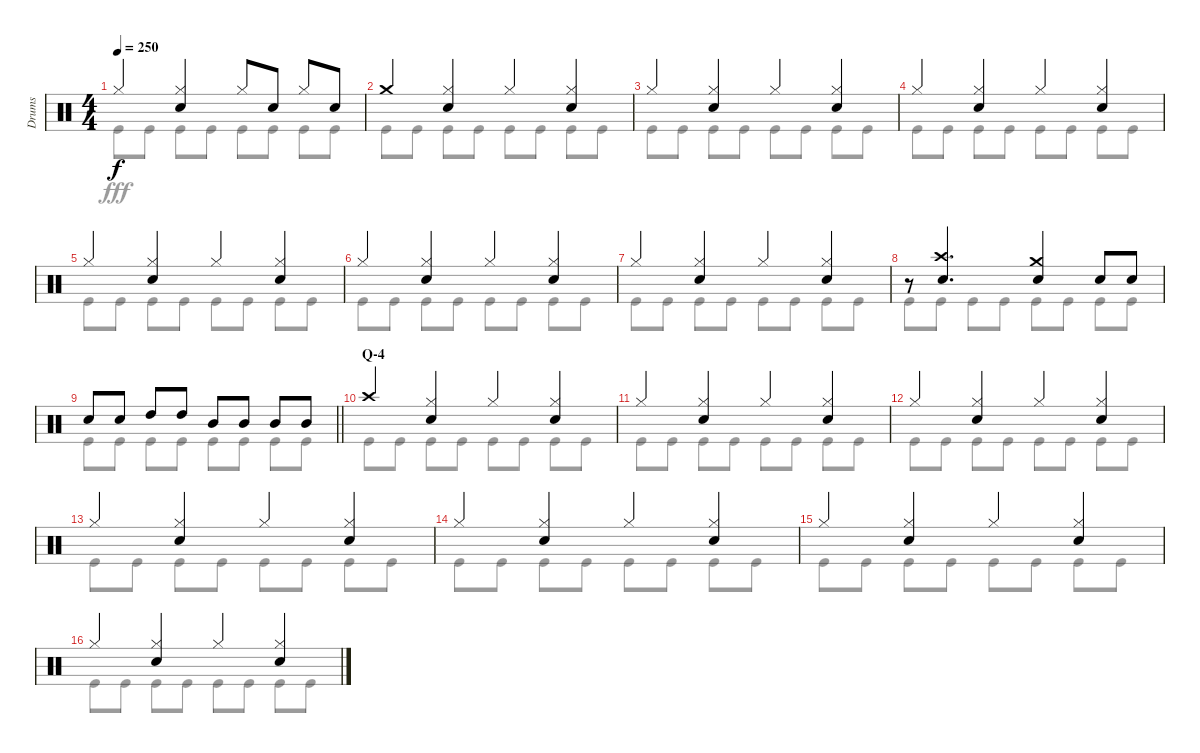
\track ("Drums" "Drums") {instrument percussion}
\staff {score}
\articulation defaults
\voice
\ts (4 4)
\tempo 250
\clef neutral
\ks c "Hi-Hat (closed)".4{dy f}
("Hi-Hat (closed)" "Snare (hit) 2").4 "Hi-Hat (closed)".8 "Snare (hit) 2".8 "Hi-Hat (closed)".8 "Snare (hit) 2".8 |
"Crash medium (hit)".4 ("Hi-Hat (closed)" "Snare (hit) 2").4 "Hi-Hat (closed)".4 ("Hi-Hat (closed)" "Snare (hit) 2").4 |
"Hi-Hat (closed)".4 ("Hi-Hat (closed)" "Snare (hit) 2").4 "Hi-Hat (closed)".4 ("Hi-Hat (closed)" "Snare (hit) 2").4 |
"Hi-Hat (closed)".4 ("Hi-Hat (closed)" "Snare (hit) 2").4 "Hi-Hat (closed)".4 ("Hi-Hat (closed)" "Snare (hit) 2").4 |
"Hi-Hat (closed)".4 ("Hi-Hat (closed)" "Snare (hit) 2").4 "Hi-Hat (closed)".4 ("Hi-Hat (closed)" "Snare (hit) 2").4 |
"Hi-Hat (closed)".4 ("Hi-Hat (closed)" "Snare (hit) 2").4 "Hi-Hat (closed)".4 ("Hi-Hat (closed)" "Snare (hit) 2").4 |
"Hi-Hat (closed)".4 ("Hi-Hat (closed)" "Snare (hit) 2").4 "Hi-Hat (closed)".4 ("Hi-Hat (closed)" "Snare (hit) 2").4 |
r.8 ("Crash high (hit)" "Snare (hit) 2").4{d} ("Crash medium (hit)" "Snare (hit) 2").4 "Snare (hit) 2".8 "Snare (hit) 2".8 |
\barLineRight lightlight "Snare (hit) 2".8 "Snare (hit) 2".8 "High Tom (hit)".8 "High Tom (hit)".8 "Mid Tom (hit)".8 "Mid Tom (hit)".8 "Mid Tom (hit)".8 "Mid Tom (hit)".8
|
\section ("" "Q-4")
"Crash high (hit)".4 ("Hi-Hat (closed)" "Snare (hit) 2").4 "Hi-Hat (closed)".4 ("Hi-Hat (closed)" "Snare (hit) 2").4 |
"Hi-Hat (closed)".4 ("Hi-Hat (closed)" "Snare (hit) 2").4 "Hi-Hat (closed)".4 ("Hi-Hat (closed)" "Snare (hit) 2").4 |
"Hi-Hat (closed)".4 ("Hi-Hat (closed)" "Snare (hit) 2").4 "Hi-Hat (closed)".4 ("Hi-Hat (closed)" "Snare (hit) 2").4 |
"Hi-Hat (closed)".4 ("Hi-Hat (closed)" "Snare (hit) 2").4 "Hi-Hat (closed)".4 ("Hi-Hat (closed)" "Snare (hit) 2").4 |
"Hi-Hat (closed)".4 ("Hi-Hat (closed)" "Snare (hit) 2").4 "Hi-Hat (closed)".4 ("Hi-Hat (closed)" "Snare (hit) 2").4 |
"Hi-Hat (closed)".4 ("Hi-Hat (closed)" "Snare (hit) 2").4 "Hi-Hat (closed)".4 ("Hi-Hat (closed)" "Snare (hit) 2").4 |
"Hi-Hat (closed)".4 ("Hi-Hat (closed)" "Snare (hit) 2").4 "Hi-Hat (closed)".4 ("Hi-Hat (closed)" "Snare (hit) 2").4
\voice
\clef neutral
\ottava regular
\simile none
\ks c "Kick (hit)".8{dy fff} "Kick (hit)".8 "Kick (hit)".8 "Kick (hit)".8 "Kick (hit)".8 "Kick (hit)".8 "Kick (hit)".8 "Kick (hit)".8
|
"Kick (hit)".8 "Kick (hit)".8 "Kick (hit)".8 "Kick (hit)".8 "Kick (hit)".8 "Kick (hit)".8 "Kick (hit)".8 "Kick (hit)".8 |
"Kick (hit)".8 "Kick (hit)".8 "Kick (hit)".8 "Kick (hit)".8 "Kick (hit)".8 "Kick (hit)".8 "Kick (hit)".8 "Kick (hit)".8 |
"Kick (hit)".8 "Kick (hit)".8 "Kick (hit)".8 "Kick (hit)".8 "Kick (hit)".8 "Kick (hit)".8 "Kick (hit)".8 "Kick (hit)".8 |
"Kick (hit)".8 "Kick (hit)".8 "Kick (hit)".8 "Kick (hit)".8 "Kick (hit)".8 "Kick (hit)".8 "Kick (hit)".8 "Kick (hit)".8 |
"Kick (hit)".8 "Kick (hit)".8 "Kick (hit)".8 "Kick (hit)".8 "Kick (hit)".8 "Kick (hit)".8 "Kick (hit)".8 "Kick (hit)".8 |
"Kick (hit)".8 "Kick (hit)".8 "Kick (hit)".8 "Kick (hit)".8 "Kick (hit)".8 "Kick (hit)".8 "Kick (hit)".8 "Kick (hit)".8 |
"Kick (hit)".8 "Kick (hit)".8 "Kick (hit)".8 "Kick (hit)".8 "Kick (hit)".8 "Kick (hit)".8 "Kick (hit)".8 "Kick (hit)".8 |
\barLineRight lightlight "Kick (hit)".8 "Kick (hit)".8 "Kick (hit)".8 "Kick (hit)".8 "Kick (hit)".8 "Kick (hit)".8 "Kick (hit)".8 "Kick (hit)".8
|
"Kick (hit)".8 "Kick (hit)".8 "Kick (hit)".8 "Kick (hit)".8 "Kick (hit)".8 "Kick (hit)".8 "Kick (hit)".8 "Kick (hit)".8 |
"Kick (hit)".8 "Kick (hit)".8 "Kick (hit)".8 "Kick (hit)".8 "Kick (hit)".8 "Kick (hit)".8 "Kick (hit)".8 "Kick (hit)".8 |
"Kick (hit)".8 "Kick (hit)".8 "Kick (hit)".8 "Kick (hit)".8 "Kick (hit)".8 "Kick (hit)".8 "Kick (hit)".8 "Kick (hit)".8 |
"Kick (hit)".8 "Kick (hit)".8 "Kick (hit)".8 "Kick (hit)".8 "Kick (hit)".8 "Kick (hit)".8 "Kick (hit)".8 "Kick (hit)".8 |
"Kick (hit)".8 "Kick (hit)".8 "Kick (hit)".8 "Kick (hit)".8 "Kick (hit)".8 "Kick (hit)".8 "Kick (hit)".8 "Kick (hit)".8 |
"Kick (hit)".8 "Kick (hit)".8 "Kick (hit)".8 "Kick (hit)".8 "Kick (hit)".8 "Kick (hit)".8 "Kick (hit)".8 "Kick (hit)".8 |
"Kick (hit)".8 "Kick (hit)".8 "Kick (hit)".8 "Kick (hit)".8 "Kick (hit)".8 "Kick (hit)".8 "Kick (hit)".8 "Kick (hit)".8
